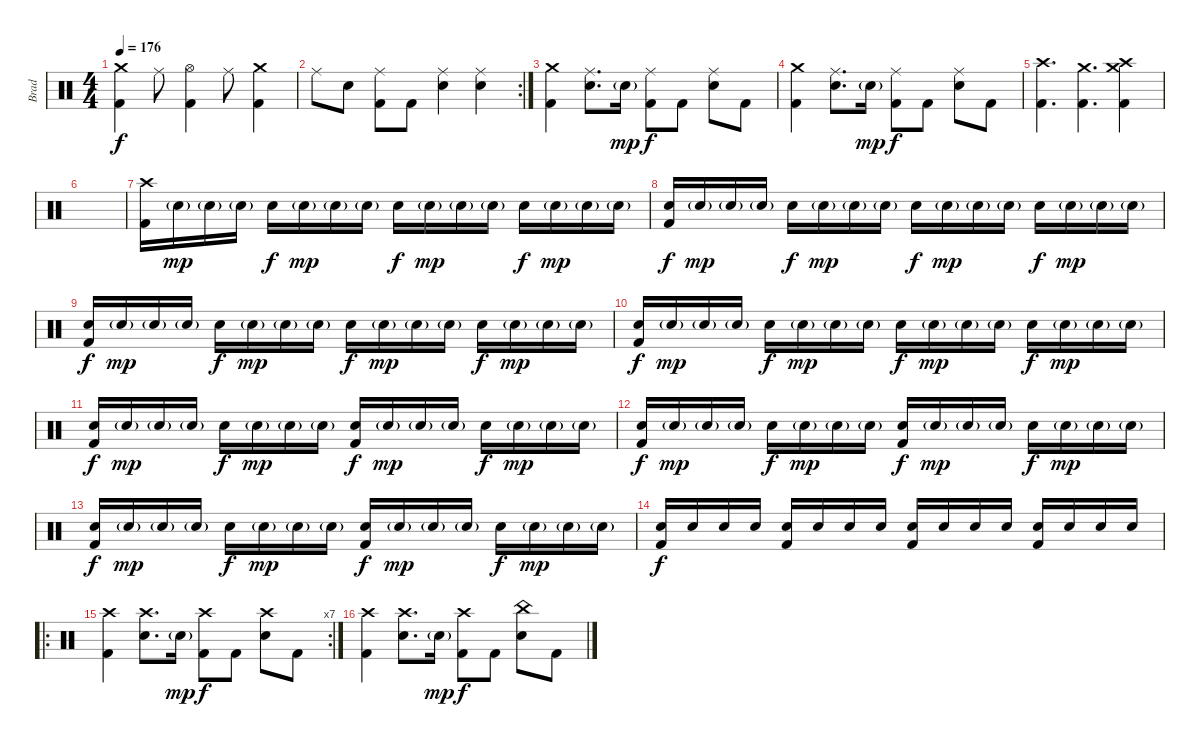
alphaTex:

\track ("Brad" "Brad") {instrument percussion}
\staff {score}
\articulation defaults
\ts (4 4)
\tempo 176
\clef neutral
\ks c
("Crash medium (hit)" "Kick (hit) 2").4{dy f} "Ride (middle)".8 ("Hi-Hat (open)" "Kick (hit) 2").4 "Ride (middle)".8 ("Crash medium (hit)" "Kick (hit) 2").4 |
\rc 2 "Ride (middle)".8 "Electric Snare (hit)".8
("Ride (middle)" "Kick (hit) 2").8 "Kick (hit) 2".8 ("Ride (middle)" "Electric Snare (hit)").4 ("Ride (middle)" "Electric Snare (hit)").4 |
("Crash medium (hit)" "Kick (hit) 2").4 ("Ride (middle)" "Electric Snare (hit)").8{d} "Electric Snare (hit)"{g}.16{dy mp} ("Ride (middle)" "Kick (hit) 2").8{dy f} "Kick (hit) 2".8 ("Ride (middle)" "Electric Snare (hit)").8 "Kick (hit) 2".8 |
("Crash medium (hit)" "Kick (hit) 2").4 ("Ride (middle)" "Electric Snare (hit)").8{d} "Electric Snare (hit)"{g}.16{dy mp} ("Ride (middle)" "Kick (hit) 2").8{dy f} "Kick (hit) 2".8 ("Ride (middle)" "Electric Snare (hit)").8 "Kick (hit) 2".8 |
("Crash high (hit)" "Kick (hit) 2").4{d} ("Crash medium (hit)" "Kick (hit) 2").4{d} ("Crash high (hit)" "Crash medium (hit)" "Kick (hit) 2").4 |
|
("Crash high (hit)" "Kick (hit) 2").16 "Electric Snare (hit)"{g}.16{dy mp} "Electric Snare (hit)"{g}.16 "Electric Snare (hit)"{g}.16 "Electric Snare (hit)".16{dy f} "Electric Snare (hit)"{g}.16{dy mp} "Electric Snare (hit)"{g}.16 "Electric Snare (hit)"{g}.16 "Electric Snare (hit)".16{dy f} "Electric Snare (hit)"{g}.16{dy mp} "Electric Snare (hit)"{g}.16 "Electric Snare (hit)"{g}.16 "Electric Snare (hit)".16{dy f} "Electric Snare (hit)"{g}.16{dy mp} "Electric Snare (hit)"{g}.16 "Electric Snare (hit)"{g}.16 |
("Electric Snare (hit)" "Kick (hit) 2").16{dy f} "Electric Snare (hit)"{g}.16{dy mp} "Electric Snare (hit)"{g}.16 "Electric Snare (hit)"{g}.16 "Electric Snare (hit)".16{dy f} "Electric Snare (hit)"{g}.16{dy mp} "Electric Snare (hit)"{g}.16 "Electric Snare (hit)"{g}.16 "Electric Snare (hit)".16{dy f} "Electric Snare (hit)"{g}.16{dy mp} "Electric Snare (hit)"{g}.16 "Electric Snare (hit)"{g}.16 "Electric Snare (hit)".16{dy f} "Electric Snare (hit)"{g}.16{dy mp} "Electric Snare (hit)"{g}.16 "Electric Snare (hit)"{g}.16 |
("Electric Snare (hit)" "Kick (hit) 2").16{dy f} "Electric Snare (hit)"{g}.16{dy mp} "Electric Snare (hit)"{g}.16 "Electric Snare (hit)"{g}.16 "Electric Snare (hit)".16{dy f} "Electric Snare (hit)"{g}.16{dy mp} "Electric Snare (hit)"{g}.16 "Electric Snare (hit)"{g}.16 "Electric Snare (hit)".16{dy f} "Electric Snare (hit)"{g}.16{dy mp} "Electric Snare (hit)"{g}.16 "Electric Snare (hit)"{g}.16 "Electric Snare (hit)".16{dy f} "Electric Snare (hit)"{g}.16{dy mp} "Electric Snare (hit)"{g}.16 "Electric Snare (hit)"{g}.16 |
("Electric Snare (hit)" "Kick (hit) 2").16{dy f} "Electric Snare (hit)"{g}.16{dy mp} "Electric Snare (hit)"{g}.16 "Electric Snare (hit)"{g}.16 "Electric Snare (hit)".16{dy f} "Electric Snare (hit)"{g}.16{dy mp} "Electric Snare (hit)"{g}.16 "Electric Snare (hit)"{g}.16 "Electric Snare (hit)".16{dy f} "Electric Snare (hit)"{g}.16{dy mp} "Electric Snare (hit)"{g}.16 "Electric Snare (hit)"{g}.16 "Electric Snare (hit)".16{dy f} "Electric Snare (hit)"{g}.16{dy mp} "Electric Snare (hit)"{g}.16 "Electric Snare (hit)"{g}.16 |
("Electric Snare (hit)" "Kick (hit) 2").16{dy f} "Electric Snare (hit)"{g}.16{dy mp} "Electric Snare (hit)"{g}.16 "Electric Snare (hit)"{g}.16 "Electric Snare (hit)".16{dy f} "Electric Snare (hit)"{g}.16{dy mp} "Electric Snare (hit)"{g}.16 "Electric Snare (hit)"{g}.16 ("Electric Snare (hit)" "Kick (hit) 2").16{dy f} "Electric Snare (hit)"{g}.16{dy mp} "Electric Snare (hit)"{g}.16 "Electric Snare (hit)"{g}.16 "Electric Snare (hit)".16{dy f} "Electric Snare (hit)"{g}.16{dy mp} "Electric Snare (hit)"{g}.16 "Electric Snare (hit)"{g}.16 |
("Electric Snare (hit)" "Kick (hit) 2").16{dy f} "Electric Snare (hit)"{g}.16{dy mp} "Electric Snare (hit)"{g}.16 "Electric Snare (hit)"{g}.16 "Electric Snare (hit)".16{dy f} "Electric Snare (hit)"{g}.16{dy mp} "Electric Snare (hit)"{g}.16 "Electric Snare (hit)"{g}.16 ("Electric Snare (hit)" "Kick (hit) 2").16{dy f} "Electric Snare (hit)"{g}.16{dy mp} "Electric Snare (hit)"{g}.16 "Electric Snare (hit)"{g}.16 "Electric Snare (hit)".16{dy f} "Electric Snare (hit)"{g}.16{dy mp} "Electric Snare (hit)"{g}.16 "Electric Snare (hit)"{g}.16 |
("Electric Snare (hit)" "Kick (hit) 2").16{dy f} "Electric Snare (hit)"{g}.16{dy mp} "Electric Snare (hit)"{g}.16 "Electric Snare (hit)"{g}.16 "Electric Snare (hit)".16{dy f} "Electric Snare (hit)"{g}.16{dy mp} "Electric Snare (hit)"{g}.16 "Electric Snare (hit)"{g}.16 ("Electric Snare (hit)" "Kick (hit) 2").16{dy f} "Electric Snare (hit)"{g}.16{dy mp} "Electric Snare (hit)"{g}.16 "Electric Snare (hit)"{g}.16 "Electric Snare (hit)".16{dy f} "Electric Snare (hit)"{g}.16{dy mp} "Electric Snare (hit)"{g}.16 "Electric Snare (hit)"{g}.16 |
("Electric Snare (hit)" "Kick (hit) 2").16{dy f} "Electric Snare (hit)".16 "Electric Snare (hit)".16 "Electric Snare (hit)".16 ("Electric Snare (hit)" "Kick (hit) 2").16 "Electric Snare (hit)".16 "Electric Snare (hit)".16 "Electric Snare (hit)".16 ("Electric Snare (hit)" "Kick (hit) 2").16 "Electric Snare (hit)".16 "Electric Snare (hit)".16 "Electric Snare (hit)".16 ("Electric Snare (hit)" "Kick (hit) 2").16 "Electric Snare (hit)".16 "Electric Snare (hit)".16 "Electric Snare (hit)".16 |
\ro
\rc 7
("Crash high (hit)" "Kick (hit) 2").4 ("Crash high (hit)" "Electric Snare (hit)").8{d} "Electric Snare (hit)"{g}.16{dy mp} ("Crash high (hit)" "Kick (hit) 2").8{dy f} "Kick (hit) 2".8 ("Crash high (hit)" "Electric Snare (hit)").8 "Kick (hit) 2".8 |
("Crash high (hit)" "Kick (hit) 2").4 ("Crash high (hit)" "Electric Snare (hit)").8{d} "Electric Snare (hit)"{g}.16{dy mp} ("Crash high (hit)" "Kick (hit) 2").8{dy f} "Kick (hit) 2".8 ("China (hit)" "Electric Snare (hit)").8 "Kick (hit) 2".8
